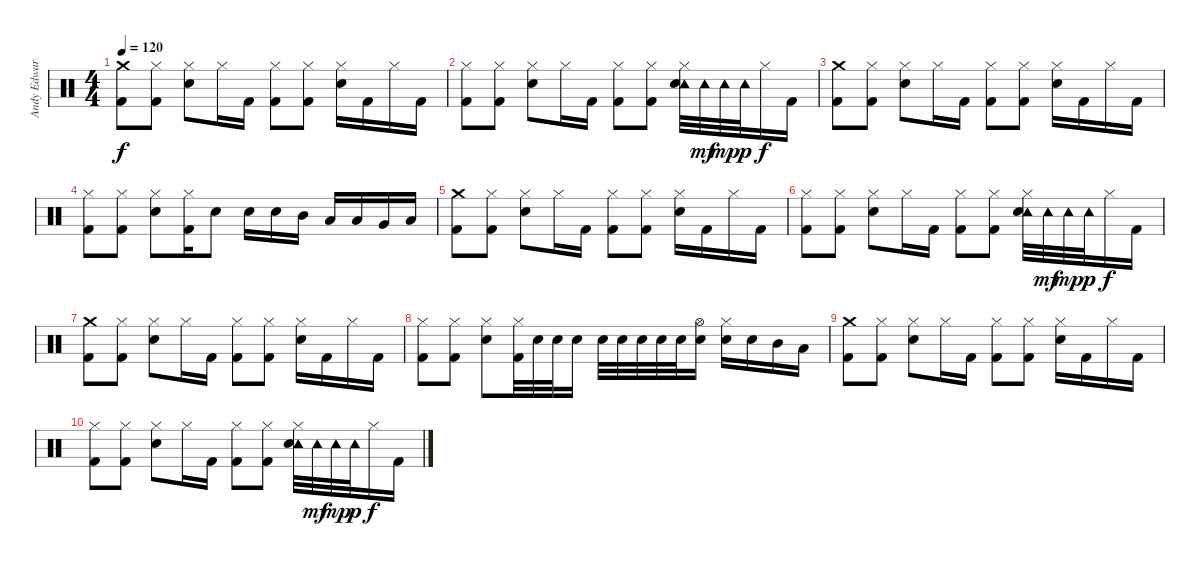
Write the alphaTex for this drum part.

\track ("Andy Edwards" "Andy Edwar") {instrument percussion}
\staff {score}
\articulation defaults
\ts (4 4)
\tempo 120
\clef neutral
\ks c
("Crash medium (hit)" "Kick (hit) 2").8{dy f} ("Hi-Hat (closed)" "Kick (hit) 2").8 ("Hi-Hat (closed)" "Electric Snare (hit)").8 "Hi-Hat (closed)".16 "Kick (hit) 2".16 ("Hi-Hat (closed)" "Kick (hit) 2").8 ("Hi-Hat (closed)" "Kick (hit) 2").8 ("Hi-Hat (closed)" "Electric Snare (hit)").16 "Kick (hit) 2".16 "Hi-Hat (closed)".16 "Kick (hit) 2".16 |
("Hi-Hat (closed)" "Kick (hit) 2").8 ("Hi-Hat (closed)" "Kick (hit) 2").8 ("Hi-Hat (closed)" "Electric Snare (hit)").8 "Hi-Hat (closed)".16 "Kick (hit) 2".16 ("Hi-Hat (closed)" "Kick (hit) 2").8 ("Hi-Hat (closed)" "Kick (hit) 2").8 ("Hi-Hat (closed)" "Tambourine (hit)" "Electric Snare (hit)").32 "Tambourine (hit)".32{dy mf} "Tambourine (hit)".32{dy mp} "Tambourine (hit)".32{dy p} "Hi-Hat (closed)".16{dy f} "Kick (hit) 2".16 |
("Crash medium (hit)" "Kick (hit) 2").8 ("Hi-Hat (closed)" "Kick (hit) 2").8 ("Hi-Hat (closed)" "Electric Snare (hit)").8 "Hi-Hat (closed)".16 "Kick (hit) 2".16 ("Hi-Hat (closed)" "Kick (hit) 2").8 ("Hi-Hat (closed)" "Kick (hit) 2").8 ("Hi-Hat (closed)" "Electric Snare (hit)").16 "Kick (hit) 2".16 "Hi-Hat (closed)".16 "Kick (hit) 2".16 |
("Hi-Hat (closed)" "Kick (hit) 2").8 ("Hi-Hat (closed)" "Kick (hit) 2").8 ("Hi-Hat (closed)" "Electric Snare (hit)").8 ("Hi-Hat (closed)" "Kick (hit) 2").16 "Electric Snare (hit)".8 "Electric Snare (hit)".16 "Electric Snare (hit)".16 "Mid Tom (hit)".16 "Low Tom (hit)".16 "Low Tom (hit)".16 "Very Low Tom (hit)".16 "Low Floor Tom (hit)".16 |
("Crash medium (hit)" "Kick (hit) 2").8 ("Hi-Hat (closed)" "Kick (hit) 2").8 ("Hi-Hat (closed)" "Electric Snare (hit)").8 "Hi-Hat (closed)".16 "Kick (hit) 2".16 ("Hi-Hat (closed)" "Kick (hit) 2").8 ("Hi-Hat (closed)" "Kick (hit) 2").8 ("Hi-Hat (closed)" "Electric Snare (hit)").16 "Kick (hit) 2".16 "Hi-Hat (closed)".16 "Kick (hit) 2".16 |
("Hi-Hat (closed)" "Kick (hit) 2").8 ("Hi-Hat (closed)" "Kick (hit) 2").8 ("Hi-Hat (closed)" "Electric Snare (hit)").8 "Hi-Hat (closed)".16 "Kick (hit) 2".16 ("Hi-Hat (closed)" "Kick (hit) 2").8 ("Hi-Hat (closed)" "Kick (hit) 2").8 ("Hi-Hat (closed)" "Tambourine (hit)" "Electric Snare (hit)").32 "Tambourine (hit)".32{dy mf} "Tambourine (hit)".32{dy mp} "Tambourine (hit)".32{dy p} "Hi-Hat (closed)".16{dy f} "Kick (hit) 2".16 |
("Crash medium (hit)" "Kick (hit) 2").8 ("Hi-Hat (closed)" "Kick (hit) 2").8 ("Hi-Hat (closed)" "Electric Snare (hit)").8 "Hi-Hat (closed)".16 "Kick (hit) 2".16 ("Hi-Hat (closed)" "Kick (hit) 2").8 ("Hi-Hat (closed)" "Kick (hit) 2").8 ("Hi-Hat (closed)" "Electric Snare (hit)").16 "Kick (hit) 2".16 "Hi-Hat (closed)".16 "Kick (hit) 2".16 |
("Hi-Hat (closed)" "Kick (hit) 2").8 ("Hi-Hat (closed)" "Kick (hit) 2").8 ("Hi-Hat (closed)" "Electric Snare (hit)").8 ("Hi-Hat (closed)" "Kick (hit) 2").32 "Electric Snare (hit)".32 "Electric Snare (hit)".32 "Electric Snare (hit)".16 "Electric Snare (hit)".32 "Electric Snare (hit)".32 "Electric Snare (hit)".32 "Electric Snare (hit)".32 "Electric Snare (hit)".32 ("Hi-Hat (open)" "Electric Snare (hit)").16 ("Hi-Hat (closed)" "Electric Snare (hit)").16 "Electric Snare (hit)".16 "Mid Tom (hit)".16 "Low Tom (hit)".16 |
("Crash medium (hit)" "Kick (hit) 2").8 ("Hi-Hat (closed)" "Kick (hit) 2").8 ("Hi-Hat (closed)" "Electric Snare (hit)").8 "Hi-Hat (closed)".16 "Kick (hit) 2".16 ("Hi-Hat (closed)" "Kick (hit) 2").8 ("Hi-Hat (closed)" "Kick (hit) 2").8 ("Hi-Hat (closed)" "Electric Snare (hit)").16 "Kick (hit) 2".16 "Hi-Hat (closed)".16 "Kick (hit) 2".16 |
("Hi-Hat (closed)" "Kick (hit) 2").8 ("Hi-Hat (closed)" "Kick (hit) 2").8 ("Hi-Hat (closed)" "Electric Snare (hit)").8 "Hi-Hat (closed)".16 "Kick (hit) 2".16 ("Hi-Hat (closed)" "Kick (hit) 2").8 ("Hi-Hat (closed)" "Kick (hit) 2").8 ("Hi-Hat (closed)" "Tambourine (hit)" "Electric Snare (hit)").32 "Tambourine (hit)".32{dy mf} "Tambourine (hit)".32{dy mp} "Tambourine (hit)".32{dy p} "Hi-Hat (closed)".16{dy f} "Kick (hit) 2".16
